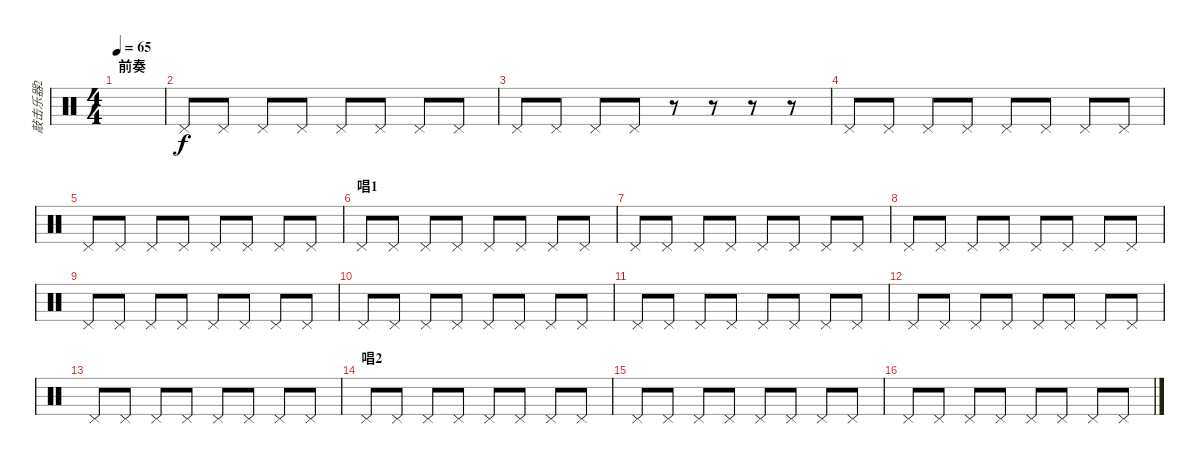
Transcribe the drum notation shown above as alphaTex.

\track ("敲击乐器2" "敲击乐器2") {instrument percussion}
\staff {score}
\articulation defaults
\ts (4 4)
\section ("" "前奏")
\tempo 65
\clef neutral
\ks c
|
"Pedal Hi-Hat (hit)".8 "Pedal Hi-Hat (hit)".8 "Pedal Hi-Hat (hit)".8 "Pedal Hi-Hat (hit)".8 "Pedal Hi-Hat (hit)".8 "Pedal Hi-Hat (hit)".8 "Pedal Hi-Hat (hit)".8 "Pedal Hi-Hat (hit)".8 |
"Pedal Hi-Hat (hit)".8 "Pedal Hi-Hat (hit)".8 "Pedal Hi-Hat (hit)".8 "Pedal Hi-Hat (hit)".8 r.8 r.8 r.8 r.8 |
"Pedal Hi-Hat (hit)".8 "Pedal Hi-Hat (hit)".8 "Pedal Hi-Hat (hit)".8 "Pedal Hi-Hat (hit)".8 "Pedal Hi-Hat (hit)".8 "Pedal Hi-Hat (hit)".8 "Pedal Hi-Hat (hit)".8 "Pedal Hi-Hat (hit)".8 |
"Pedal Hi-Hat (hit)".8 "Pedal Hi-Hat (hit)".8 "Pedal Hi-Hat (hit)".8 "Pedal Hi-Hat (hit)".8 "Pedal Hi-Hat (hit)".8 "Pedal Hi-Hat (hit)".8 "Pedal Hi-Hat (hit)".8 "Pedal Hi-Hat (hit)".8 |
\section ("" "唱1")
"Pedal Hi-Hat (hit)".8 "Pedal Hi-Hat (hit)".8 "Pedal Hi-Hat (hit)".8 "Pedal Hi-Hat (hit)".8 "Pedal Hi-Hat (hit)".8 "Pedal Hi-Hat (hit)".8 "Pedal Hi-Hat (hit)".8 "Pedal Hi-Hat (hit)".8 |
"Pedal Hi-Hat (hit)".8 "Pedal Hi-Hat (hit)".8 "Pedal Hi-Hat (hit)".8 "Pedal Hi-Hat (hit)".8 "Pedal Hi-Hat (hit)".8 "Pedal Hi-Hat (hit)".8 "Pedal Hi-Hat (hit)".8 "Pedal Hi-Hat (hit)".8 |
"Pedal Hi-Hat (hit)".8 "Pedal Hi-Hat (hit)".8 "Pedal Hi-Hat (hit)".8 "Pedal Hi-Hat (hit)".8 "Pedal Hi-Hat (hit)".8 "Pedal Hi-Hat (hit)".8 "Pedal Hi-Hat (hit)".8 "Pedal Hi-Hat (hit)".8 |
"Pedal Hi-Hat (hit)".8 "Pedal Hi-Hat (hit)".8 "Pedal Hi-Hat (hit)".8 "Pedal Hi-Hat (hit)".8 "Pedal Hi-Hat (hit)".8 "Pedal Hi-Hat (hit)".8 "Pedal Hi-Hat (hit)".8 "Pedal Hi-Hat (hit)".8 |
"Pedal Hi-Hat (hit)".8 "Pedal Hi-Hat (hit)".8 "Pedal Hi-Hat (hit)".8 "Pedal Hi-Hat (hit)".8 "Pedal Hi-Hat (hit)".8 "Pedal Hi-Hat (hit)".8 "Pedal Hi-Hat (hit)".8 "Pedal Hi-Hat (hit)".8 |
"Pedal Hi-Hat (hit)".8 "Pedal Hi-Hat (hit)".8 "Pedal Hi-Hat (hit)".8 "Pedal Hi-Hat (hit)".8 "Pedal Hi-Hat (hit)".8 "Pedal Hi-Hat (hit)".8 "Pedal Hi-Hat (hit)".8 "Pedal Hi-Hat (hit)".8 |
"Pedal Hi-Hat (hit)".8 "Pedal Hi-Hat (hit)".8 "Pedal Hi-Hat (hit)".8 "Pedal Hi-Hat (hit)".8 "Pedal Hi-Hat (hit)".8 "Pedal Hi-Hat (hit)".8 "Pedal Hi-Hat (hit)".8 "Pedal Hi-Hat (hit)".8 |
"Pedal Hi-Hat (hit)".8 "Pedal Hi-Hat (hit)".8 "Pedal Hi-Hat (hit)".8 "Pedal Hi-Hat (hit)".8 "Pedal Hi-Hat (hit)".8 "Pedal Hi-Hat (hit)".8 "Pedal Hi-Hat (hit)".8 "Pedal Hi-Hat (hit)".8 |
\section ("" "唱2")
"Pedal Hi-Hat (hit)".8 "Pedal Hi-Hat (hit)".8 "Pedal Hi-Hat (hit)".8 "Pedal Hi-Hat (hit)".8 "Pedal Hi-Hat (hit)".8 "Pedal Hi-Hat (hit)".8 "Pedal Hi-Hat (hit)".8 "Pedal Hi-Hat (hit)".8 |
"Pedal Hi-Hat (hit)".8 "Pedal Hi-Hat (hit)".8 "Pedal Hi-Hat (hit)".8 "Pedal Hi-Hat (hit)".8 "Pedal Hi-Hat (hit)".8 "Pedal Hi-Hat (hit)".8 "Pedal Hi-Hat (hit)".8 "Pedal Hi-Hat (hit)".8 |
"Pedal Hi-Hat (hit)".8 "Pedal Hi-Hat (hit)".8 "Pedal Hi-Hat (hit)".8 "Pedal Hi-Hat (hit)".8 "Pedal Hi-Hat (hit)".8 "Pedal Hi-Hat (hit)".8 "Pedal Hi-Hat (hit)".8 "Pedal Hi-Hat (hit)".8
